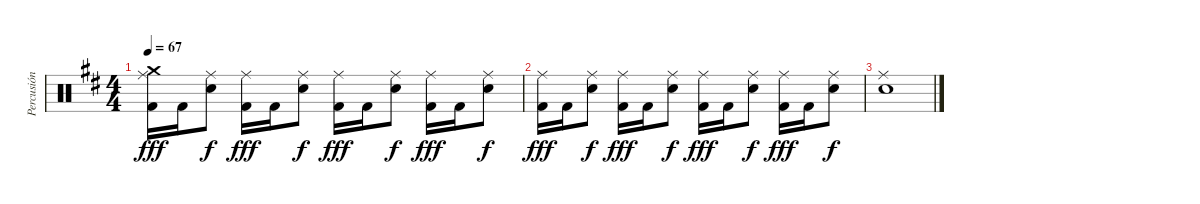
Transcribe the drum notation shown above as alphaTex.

\track ("Percusión" "Percusión") {instrument percussion}
\staff {score}
\articulation defaults
\ts (4 4)
\tempo 67
\clef neutral
\ks bminor
("Ride (middle)" "Kick (hit) 2" "Crash medium (hit)").16{dy fff} "Kick (hit) 2".16 ("Snare (hit) 2" "Ride (middle)").8{dy f} ("Ride (middle)" "Kick (hit) 2").16{dy fff} "Kick (hit) 2".16 ("Snare (hit) 2" "Ride (middle)").8{dy f} ("Ride (middle)" "Kick (hit) 2").16{dy fff} "Kick (hit) 2".16 ("Snare (hit) 2" "Ride (middle)").8{dy f} ("Ride (middle)" "Kick (hit) 2").16{dy fff} "Kick (hit) 2".16 ("Snare (hit) 2" "Ride (middle)").8{dy f} |
("Ride (middle)" "Kick (hit) 2").16{dy fff} "Kick (hit) 2".16 ("Snare (hit) 2" "Ride (middle)").8{dy f} ("Ride (middle)" "Kick (hit) 2").16{dy fff} "Kick (hit) 2".16 ("Snare (hit) 2" "Ride (middle)").8{dy f} ("Ride (middle)" "Kick (hit) 2").16{dy fff} "Kick (hit) 2".16 ("Snare (hit) 2" "Ride (middle)").8{dy f} ("Ride (middle)" "Kick (hit) 2").16{dy fff} "Kick (hit) 2".16 ("Snare (hit) 2" "Ride (middle)").8{dy f} |
("Snare (hit) 2" "Ride (middle)").1
